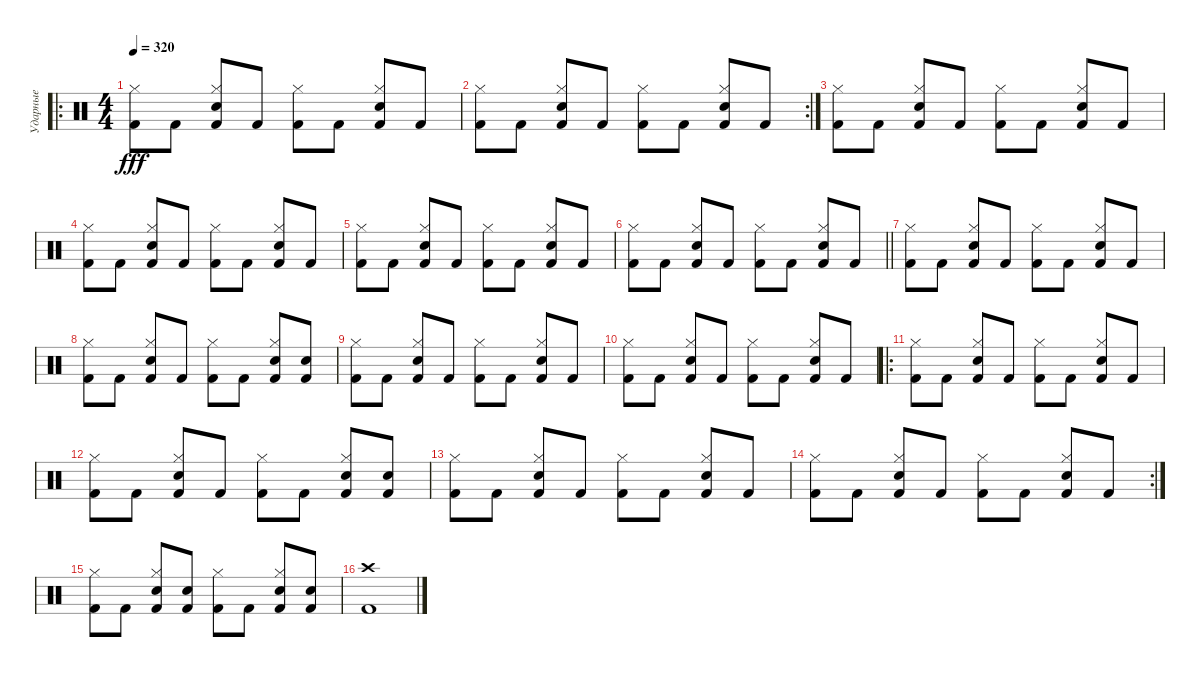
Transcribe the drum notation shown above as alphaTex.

\track ("Ударные" "Ударные") {instrument percussion}
\staff {score}
\articulation defaults
\ro
\ts (4 4)
\tempo 320
\clef neutral
\ks c
("Kick (hit) 2" "Hi-Hat (closed)").8{dy fff} "Kick (hit) 2".8 ("Kick (hit) 2" "Snare (hit) 2" "Hi-Hat (closed)").8 "Kick (hit) 2".8 ("Kick (hit) 2" "Hi-Hat (closed)").8 "Kick (hit) 2".8 ("Kick (hit) 2" "Snare (hit) 2" "Hi-Hat (closed)").8 "Kick (hit) 2".8 |
\rc 2
("Kick (hit) 2" "Hi-Hat (closed)").8 "Kick (hit) 2".8 ("Kick (hit) 2" "Snare (hit) 2" "Hi-Hat (closed)").8 "Kick (hit) 2".8 ("Kick (hit) 2" "Hi-Hat (closed)").8 "Kick (hit) 2".8 ("Kick (hit) 2" "Snare (hit) 2" "Hi-Hat (closed)").8 "Kick (hit) 2".8 |
("Kick (hit) 2" "Hi-Hat (closed)").8 "Kick (hit) 2".8 ("Kick (hit) 2" "Snare (hit) 2" "Hi-Hat (closed)").8 "Kick (hit) 2".8 ("Kick (hit) 2" "Hi-Hat (closed)").8 "Kick (hit) 2".8 ("Kick (hit) 2" "Snare (hit) 2" "Hi-Hat (closed)").8 "Kick (hit) 2".8 |
("Kick (hit) 2" "Hi-Hat (closed)").8 "Kick (hit) 2".8 ("Kick (hit) 2" "Snare (hit) 2" "Hi-Hat (closed)").8 "Kick (hit) 2".8 ("Kick (hit) 2" "Hi-Hat (closed)").8 "Kick (hit) 2".8 ("Kick (hit) 2" "Snare (hit) 2" "Hi-Hat (closed)").8 "Kick (hit) 2".8 |
("Kick (hit) 2" "Hi-Hat (closed)").8 "Kick (hit) 2".8 ("Kick (hit) 2" "Snare (hit) 2" "Hi-Hat (closed)").8 "Kick (hit) 2".8 ("Kick (hit) 2" "Hi-Hat (closed)").8 "Kick (hit) 2".8 ("Kick (hit) 2" "Snare (hit) 2" "Hi-Hat (closed)").8 "Kick (hit) 2".8 |
\barLineRight lightlight
("Kick (hit) 2" "Hi-Hat (closed)").8 "Kick (hit) 2".8 ("Kick (hit) 2" "Snare (hit) 2" "Hi-Hat (closed)").8 "Kick (hit) 2".8 ("Kick (hit) 2" "Hi-Hat (closed)").8 "Kick (hit) 2".8 ("Kick (hit) 2" "Snare (hit) 2" "Hi-Hat (closed)").8 "Kick (hit) 2".8 |
("Kick (hit) 2" "Hi-Hat (closed)").8 "Kick (hit) 2".8 ("Kick (hit) 2" "Snare (hit) 2" "Hi-Hat (closed)").8 "Kick (hit) 2".8 ("Kick (hit) 2" "Hi-Hat (closed)").8 "Kick (hit) 2".8 ("Kick (hit) 2" "Snare (hit) 2" "Hi-Hat (closed)").8 "Kick (hit) 2".8 |
("Kick (hit) 2" "Hi-Hat (closed)").8 "Kick (hit) 2".8 ("Kick (hit) 2" "Snare (hit) 2" "Hi-Hat (closed)").8 "Kick (hit) 2".8 ("Kick (hit) 2" "Hi-Hat (closed)").8 "Kick (hit) 2".8 ("Kick (hit) 2" "Snare (hit) 2" "Hi-Hat (closed)").8 ("Kick (hit) 2" "Snare (hit) 2").8 |
("Kick (hit) 2" "Hi-Hat (closed)").8 "Kick (hit) 2".8 ("Kick (hit) 2" "Snare (hit) 2" "Hi-Hat (closed)").8 "Kick (hit) 2".8 ("Kick (hit) 2" "Hi-Hat (closed)").8 "Kick (hit) 2".8 ("Kick (hit) 2" "Snare (hit) 2" "Hi-Hat (closed)").8 "Kick (hit) 2".8 |
("Kick (hit) 2" "Hi-Hat (closed)").8 "Kick (hit) 2".8 ("Kick (hit) 2" "Snare (hit) 2" "Hi-Hat (closed)").8 "Kick (hit) 2".8 ("Kick (hit) 2" "Hi-Hat (closed)").8 "Kick (hit) 2".8 ("Kick (hit) 2" "Snare (hit) 2" "Hi-Hat (closed)").8 "Kick (hit) 2".8 |
\ro
("Kick (hit) 2" "Hi-Hat (closed)").8 "Kick (hit) 2".8 ("Kick (hit) 2" "Snare (hit) 2" "Hi-Hat (closed)").8 "Kick (hit) 2".8 ("Kick (hit) 2" "Hi-Hat (closed)").8 "Kick (hit) 2".8 ("Kick (hit) 2" "Snare (hit) 2" "Hi-Hat (closed)").8 "Kick (hit) 2".8 |
("Kick (hit) 2" "Hi-Hat (closed)").8 "Kick (hit) 2".8 ("Kick (hit) 2" "Snare (hit) 2" "Hi-Hat (closed)").8 "Kick (hit) 2".8 ("Kick (hit) 2" "Hi-Hat (closed)").8 "Kick (hit) 2".8 ("Kick (hit) 2" "Snare (hit) 2" "Hi-Hat (closed)").8 ("Kick (hit) 2" "Snare (hit) 2").8 |
("Kick (hit) 2" "Hi-Hat (closed)").8 "Kick (hit) 2".8 ("Kick (hit) 2" "Snare (hit) 2" "Hi-Hat (closed)").8 "Kick (hit) 2".8 ("Kick (hit) 2" "Hi-Hat (closed)").8 "Kick (hit) 2".8 ("Kick (hit) 2" "Snare (hit) 2" "Hi-Hat (closed)").8 "Kick (hit) 2".8 |
\rc 2
("Kick (hit) 2" "Hi-Hat (closed)").8 "Kick (hit) 2".8 ("Kick (hit) 2" "Snare (hit) 2" "Hi-Hat (closed)").8 "Kick (hit) 2".8 ("Kick (hit) 2" "Hi-Hat (closed)").8 "Kick (hit) 2".8 ("Kick (hit) 2" "Snare (hit) 2" "Hi-Hat (closed)").8 "Kick (hit) 2".8 |
("Kick (hit) 2" "Hi-Hat (closed)").8 "Kick (hit) 2".8 ("Kick (hit) 2" "Snare (hit) 2" "Hi-Hat (closed)").8 ("Kick (hit) 2" "Snare (hit) 2").8 ("Kick (hit) 2" "Hi-Hat (closed)").8 "Kick (hit) 2".8 ("Kick (hit) 2" "Snare (hit) 2" "Hi-Hat (closed)").8 ("Kick (hit) 2" "Snare (hit) 2").8 |
("Kick (hit) 2" "Crash high (hit)").1
